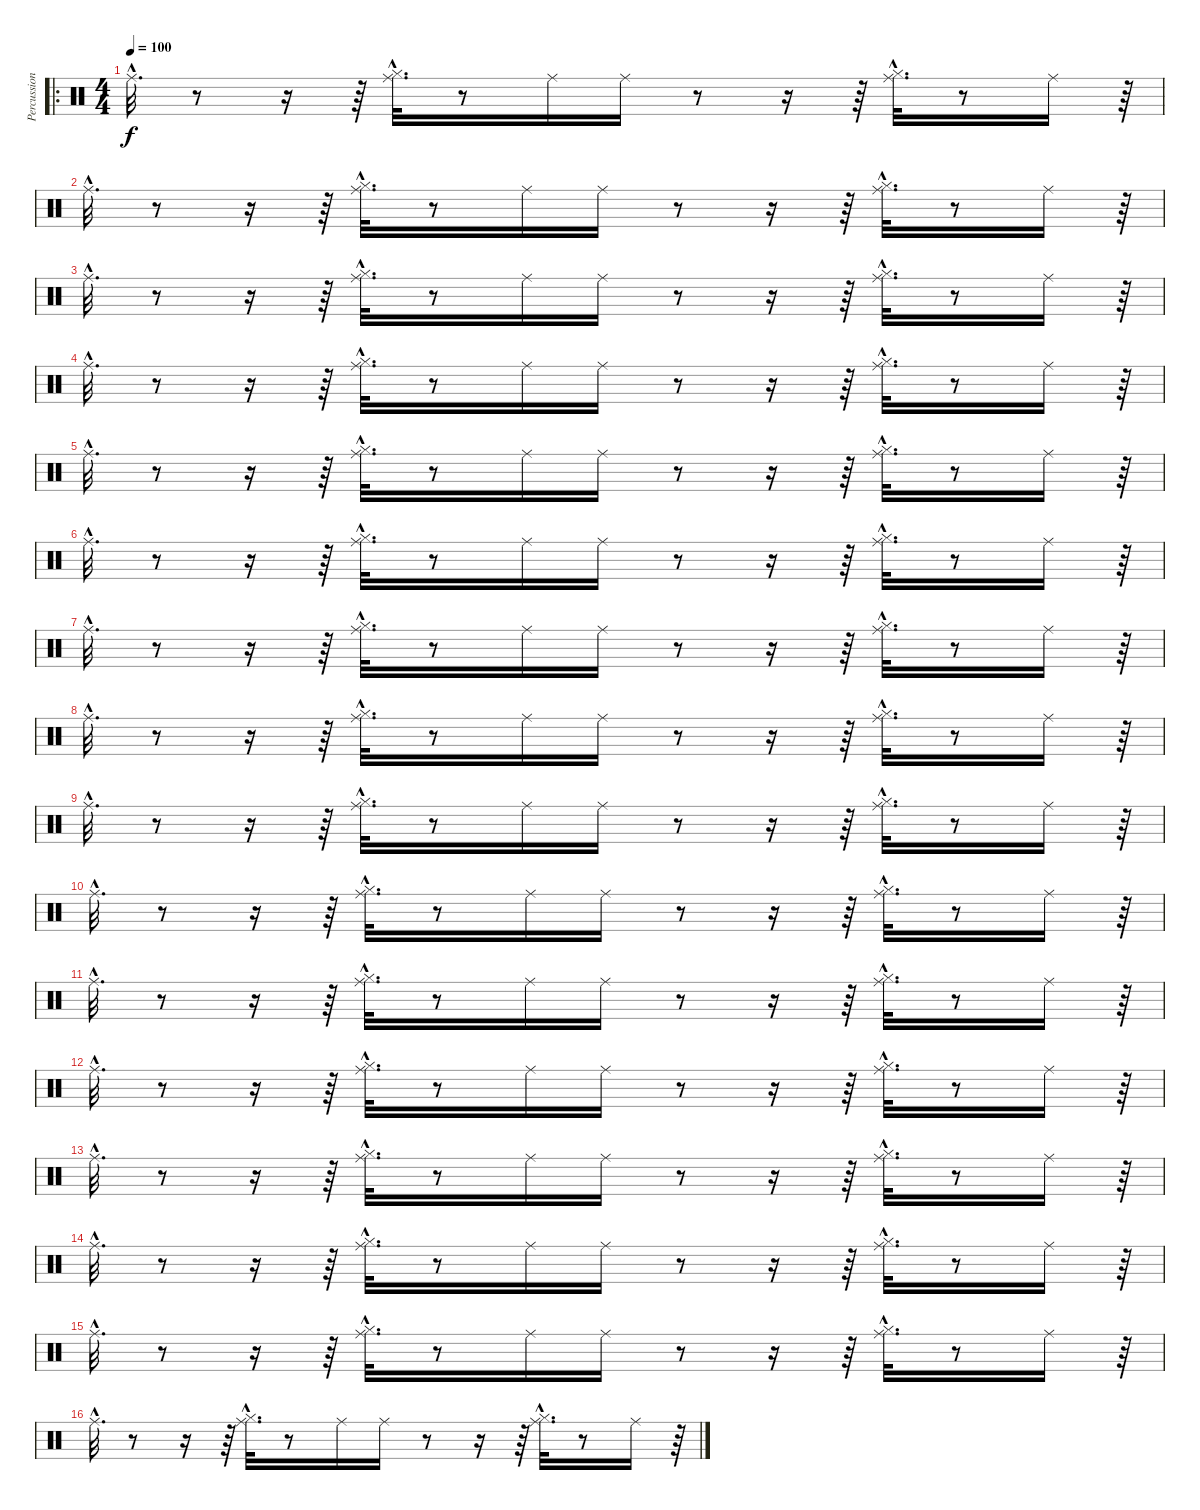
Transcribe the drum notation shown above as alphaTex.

\track ("Percussions" "Percussion") {instrument percussion}
\staff {score}
\articulation defaults
\ro
\ts (4 4)
\tempo 100
\clef neutral
\ks c "Ride (middle)"{hac}.32{d dy f}
r.8 r.16 r.64 ("Hi-Hat (closed)"{hac} "Ride (middle)"{hac}).32{d} r.8 "Ride (middle)".16 "Ride (middle)".16 r.8 r.16 r.64 ("Hi-Hat (closed)"{hac} "Ride (middle)"{hac}).32{d} r.8 "Ride (middle)".16 r.64 |
"Ride (middle)"{hac}.32{d} r.8 r.16 r.64 ("Hi-Hat (closed)"{hac} "Ride (middle)"{hac}).32{d} r.8 "Ride (middle)".16 "Ride (middle)".16 r.8 r.16 r.64 ("Hi-Hat (closed)"{hac} "Ride (middle)"{hac}).32{d} r.8 "Ride (middle)".16 r.64 |
"Ride (middle)"{hac}.32{d} r.8 r.16 r.64 ("Hi-Hat (closed)"{hac} "Ride (middle)"{hac}).32{d} r.8 "Ride (middle)".16 "Ride (middle)".16 r.8 r.16 r.64 ("Hi-Hat (closed)"{hac} "Ride (middle)"{hac}).32{d} r.8 "Ride (middle)".16 r.64 |
"Ride (middle)"{hac}.32{d} r.8 r.16 r.64 ("Hi-Hat (closed)"{hac} "Ride (middle)"{hac}).32{d} r.8 "Ride (middle)".16 "Ride (middle)".16 r.8 r.16 r.64 ("Hi-Hat (closed)"{hac} "Ride (middle)"{hac}).32{d} r.8 "Ride (middle)".16 r.64 |
"Ride (middle)"{hac}.32{d} r.8 r.16 r.64 ("Hi-Hat (closed)"{hac} "Ride (middle)"{hac}).32{d} r.8 "Ride (middle)".16 "Ride (middle)".16 r.8 r.16 r.64 ("Hi-Hat (closed)"{hac} "Ride (middle)"{hac}).32{d} r.8 "Ride (middle)".16 r.64 |
"Ride (middle)"{hac}.32{d} r.8 r.16 r.64 ("Hi-Hat (closed)"{hac} "Ride (middle)"{hac}).32{d} r.8 "Ride (middle)".16 "Ride (middle)".16 r.8 r.16 r.64 ("Hi-Hat (closed)"{hac} "Ride (middle)"{hac}).32{d} r.8 "Ride (middle)".16 r.64 |
"Ride (middle)"{hac}.32{d} r.8 r.16 r.64 ("Hi-Hat (closed)"{hac} "Ride (middle)"{hac}).32{d} r.8 "Ride (middle)".16 "Ride (middle)".16 r.8 r.16 r.64 ("Hi-Hat (closed)"{hac} "Ride (middle)"{hac}).32{d} r.8 "Ride (middle)".16 r.64 |
"Ride (middle)"{hac}.32{d} r.8 r.16 r.64 ("Hi-Hat (closed)"{hac} "Ride (middle)"{hac}).32{d} r.8 "Ride (middle)".16 "Ride (middle)".16 r.8 r.16 r.64 ("Hi-Hat (closed)"{hac} "Ride (middle)"{hac}).32{d} r.8 "Ride (middle)".16 r.64 |
"Ride (middle)"{hac}.32{d} r.8 r.16 r.64 ("Hi-Hat (closed)"{hac} "Ride (middle)"{hac}).32{d} r.8 "Ride (middle)".16 "Ride (middle)".16 r.8 r.16 r.64 ("Hi-Hat (closed)"{hac} "Ride (middle)"{hac}).32{d} r.8 "Ride (middle)".16 r.64 |
"Ride (middle)"{hac}.32{d} r.8 r.16 r.64 ("Hi-Hat (closed)"{hac} "Ride (middle)"{hac}).32{d} r.8 "Ride (middle)".16 "Ride (middle)".16 r.8 r.16 r.64 ("Hi-Hat (closed)"{hac} "Ride (middle)"{hac}).32{d} r.8 "Ride (middle)".16 r.64 |
"Ride (middle)"{hac}.32{d} r.8 r.16 r.64 ("Hi-Hat (closed)"{hac} "Ride (middle)"{hac}).32{d} r.8 "Ride (middle)".16 "Ride (middle)".16 r.8 r.16 r.64 ("Hi-Hat (closed)"{hac} "Ride (middle)"{hac}).32{d} r.8 "Ride (middle)".16 r.64 |
"Ride (middle)"{hac}.32{d} r.8 r.16 r.64 ("Hi-Hat (closed)"{hac} "Ride (middle)"{hac}).32{d} r.8 "Ride (middle)".16 "Ride (middle)".16 r.8 r.16 r.64 ("Hi-Hat (closed)"{hac} "Ride (middle)"{hac}).32{d} r.8 "Ride (middle)".16 r.64 |
"Ride (middle)"{hac}.32{d} r.8 r.16 r.64 ("Hi-Hat (closed)"{hac} "Ride (middle)"{hac}).32{d} r.8 "Ride (middle)".16 "Ride (middle)".16 r.8 r.16 r.64 ("Hi-Hat (closed)"{hac} "Ride (middle)"{hac}).32{d} r.8 "Ride (middle)".16 r.64 |
"Ride (middle)"{hac}.32{d} r.8 r.16 r.64 ("Hi-Hat (closed)"{hac} "Ride (middle)"{hac}).32{d} r.8 "Ride (middle)".16 "Ride (middle)".16 r.8 r.16 r.64 ("Hi-Hat (closed)"{hac} "Ride (middle)"{hac}).32{d} r.8 "Ride (middle)".16 r.64 |
"Ride (middle)"{hac}.32{d} r.8 r.16 r.64 ("Hi-Hat (closed)"{hac} "Ride (middle)"{hac}).32{d} r.8 "Ride (middle)".16 "Ride (middle)".16 r.8 r.16 r.64 ("Hi-Hat (closed)"{hac} "Ride (middle)"{hac}).32{d} r.8 "Ride (middle)".16 r.64 |
"Ride (middle)"{hac}.32{d} r.8 r.16 r.64 ("Hi-Hat (closed)"{hac} "Ride (middle)"{hac}).32{d} r.8 "Ride (middle)".16 "Ride (middle)".16 r.8 r.16 r.64 ("Hi-Hat (closed)"{hac} "Ride (middle)"{hac}).32{d} r.8 "Ride (middle)".16 r.64
